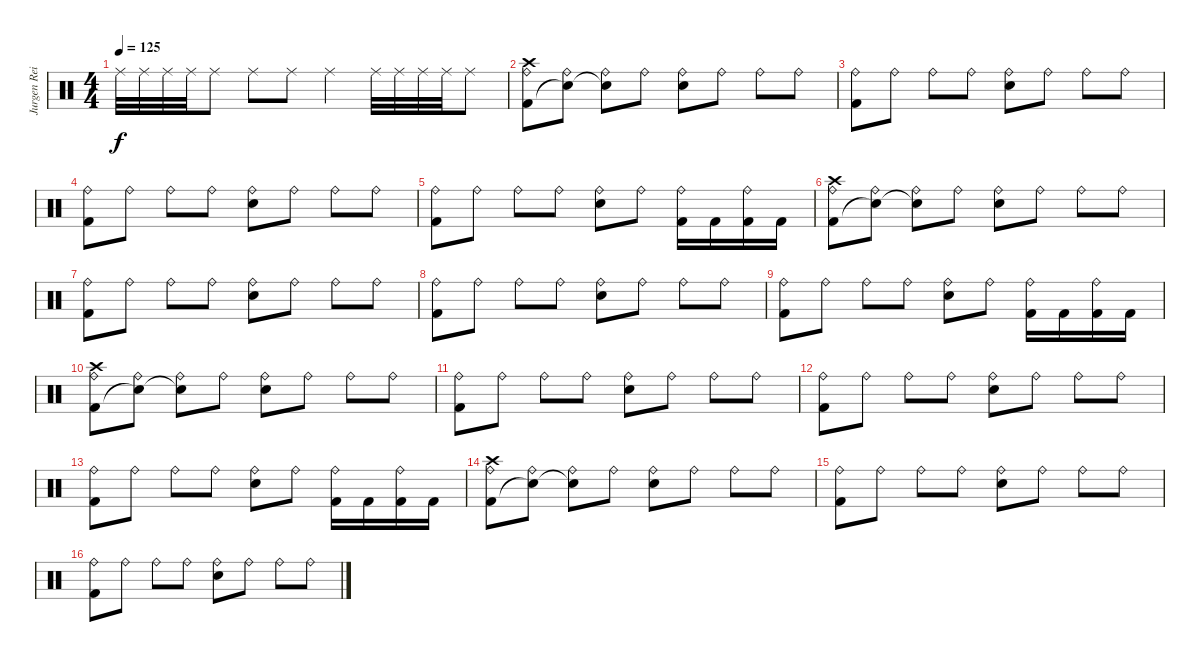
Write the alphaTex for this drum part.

\track ("Jurgen Reil" "Jurgen Rei") {instrument percussion}
\staff {score}
\articulation defaults
\ts (4 4)
\tempo 125
\clef neutral
\ks c "Ride (middle)".32{dy f} "Ride (middle)".32 "Ride (middle)".32 "Ride (middle)".32 "Ride (middle)".8 "Ride (middle)".8 "Ride (middle)".8 "Ride (middle)".4 "Ride (middle)".32 "Ride (middle)".32 "Ride (middle)".32 "Ride (middle)".32 "Ride (middle)".8
|
("Ride (bell)" "Kick (hit) 2" "Crash high (hit)").8 ("Ride (bell)" "Snare (hit)"{t}).8 ("Ride (bell)" "Snare (hit)"{t}).8 "Ride (bell)".8 ("Ride (bell)" "Snare (hit) 2").8 "Ride (bell)".8 "Ride (bell)".8 "Ride (bell)".8 |
("Ride (bell)" "Kick (hit) 2").8 "Ride (bell)".8 "Ride (bell)".8 "Ride (bell)".8 ("Ride (bell)" "Snare (hit) 2").8 "Ride (bell)".8 "Ride (bell)".8 "Ride (bell)".8 |
("Ride (bell)" "Kick (hit) 2").8 "Ride (bell)".8 "Ride (bell)".8 "Ride (bell)".8 ("Ride (bell)" "Snare (hit) 2").8 "Ride (bell)".8 "Ride (bell)".8 "Ride (bell)".8 |
("Ride (bell)" "Kick (hit) 2").8 "Ride (bell)".8 "Ride (bell)".8 "Ride (bell)".8 ("Ride (bell)" "Snare (hit) 2").8 "Ride (bell)".8 ("Ride (bell)" "Kick (hit) 2").16 "Kick (hit) 2".16 ("Ride (bell)" "Kick (hit) 2").16 "Kick (hit) 2".16 |
("Ride (bell)" "Kick (hit) 2" "Crash high (hit)").8 ("Ride (bell)" "Snare (hit)"{t}).8 ("Ride (bell)" "Snare (hit)"{t}).8 "Ride (bell)".8 ("Ride (bell)" "Snare (hit) 2").8 "Ride (bell)".8 "Ride (bell)".8 "Ride (bell)".8 |
("Ride (bell)" "Kick (hit) 2").8 "Ride (bell)".8 "Ride (bell)".8 "Ride (bell)".8 ("Ride (bell)" "Snare (hit) 2").8 "Ride (bell)".8 "Ride (bell)".8 "Ride (bell)".8 |
("Ride (bell)" "Kick (hit) 2").8 "Ride (bell)".8 "Ride (bell)".8 "Ride (bell)".8 ("Ride (bell)" "Snare (hit) 2").8 "Ride (bell)".8 "Ride (bell)".8 "Ride (bell)".8 |
("Ride (bell)" "Kick (hit) 2").8 "Ride (bell)".8 "Ride (bell)".8 "Ride (bell)".8 ("Ride (bell)" "Snare (hit) 2").8 "Ride (bell)".8 ("Ride (bell)" "Kick (hit) 2").16 "Kick (hit) 2".16 ("Ride (bell)" "Kick (hit) 2").16 "Kick (hit) 2".16 |
("Ride (bell)" "Kick (hit) 2" "Crash high (hit)").8 ("Ride (bell)" "Snare (hit)"{t}).8 ("Ride (bell)" "Snare (hit)"{t}).8 "Ride (bell)".8 ("Ride (bell)" "Snare (hit) 2").8 "Ride (bell)".8 "Ride (bell)".8 "Ride (bell)".8 |
("Ride (bell)" "Kick (hit) 2").8 "Ride (bell)".8 "Ride (bell)".8 "Ride (bell)".8 ("Ride (bell)" "Snare (hit) 2").8 "Ride (bell)".8 "Ride (bell)".8 "Ride (bell)".8 |
("Ride (bell)" "Kick (hit) 2").8 "Ride (bell)".8 "Ride (bell)".8 "Ride (bell)".8 ("Ride (bell)" "Snare (hit) 2").8 "Ride (bell)".8 "Ride (bell)".8 "Ride (bell)".8 |
("Ride (bell)" "Kick (hit) 2").8 "Ride (bell)".8 "Ride (bell)".8 "Ride (bell)".8 ("Ride (bell)" "Snare (hit) 2").8 "Ride (bell)".8 ("Ride (bell)" "Kick (hit) 2").16 "Kick (hit) 2".16 ("Ride (bell)" "Kick (hit) 2").16 "Kick (hit) 2".16 |
("Ride (bell)" "Kick (hit) 2" "Crash high (hit)").8 ("Ride (bell)" "Snare (hit)"{t}).8 ("Ride (bell)" "Snare (hit)"{t}).8 "Ride (bell)".8 ("Ride (bell)" "Snare (hit) 2").8 "Ride (bell)".8 "Ride (bell)".8 "Ride (bell)".8 |
("Ride (bell)" "Kick (hit) 2").8 "Ride (bell)".8 "Ride (bell)".8 "Ride (bell)".8 ("Ride (bell)" "Snare (hit) 2").8 "Ride (bell)".8 "Ride (bell)".8 "Ride (bell)".8 |
("Ride (bell)" "Kick (hit) 2").8 "Ride (bell)".8 "Ride (bell)".8 "Ride (bell)".8 ("Ride (bell)" "Snare (hit) 2").8 "Ride (bell)".8 "Ride (bell)".8 "Ride (bell)".8
